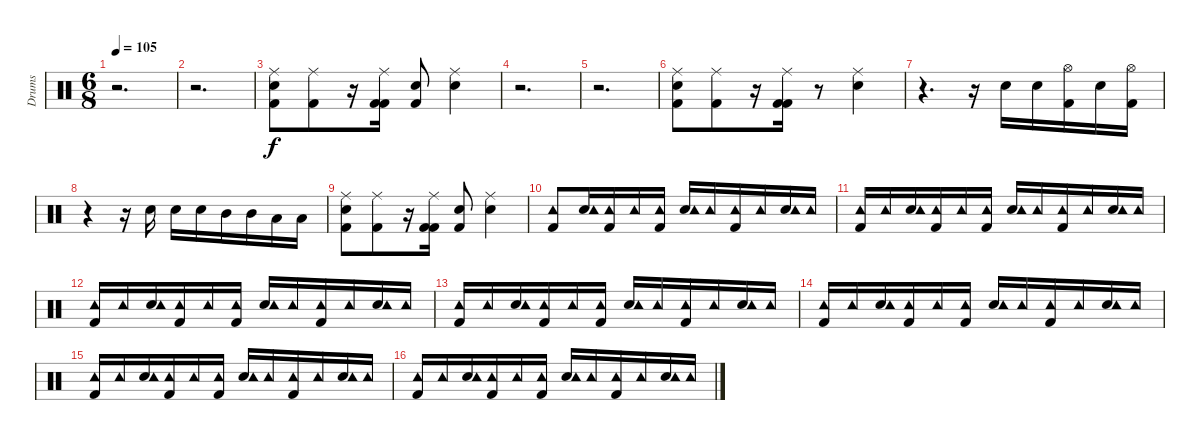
\track ("Drums" "Drums") {instrument percussion}
\staff {score}
\articulation defaults
\ts (6 8)
\tempo 105
\clef neutral
\ks c
r.2{d dy f} |
r.2{d} |
("Kick (hit) 2" "Snare (hit) 2" "Ride (middle)").8 ("Kick (hit) 2" "Ride (middle)").8 r.16 ("Kick (hit) 2" "Kick (hit) 2" "Ride (middle)").16 ("Kick (hit) 2" "Snare (hit) 2").8 ("Ride (middle)" "Snare (hit) 2").4 |
r.2{d} |
r.2{d} |
("Kick (hit) 2" "Snare (hit) 2" "Ride (middle)").8 ("Kick (hit) 2" "Ride (middle)").8 r.16 ("Kick (hit) 2" "Kick (hit) 2" "Ride (middle)").16 r.8 ("Ride (middle)" "Snare (hit) 2").4 |
r.4{d} r.16 "Snare (hit) 2".16 "Snare (hit) 2".16 ("Kick (hit) 2" "Hi-Hat (open)").16 "Snare (hit) 2".16 ("Kick (hit) 2" "Hi-Hat (open)").16 |
r.4 r.16 "Snare (hit) 2".16 "Snare (hit) 2".16 "Snare (hit) 2".16 "Mid Tom (hit)".16 "Mid Tom (hit)".16 "Low Tom (hit)".16 "Low Tom (hit)".16 |
("Kick (hit) 2" "Snare (hit) 2" "Ride (middle)").8 ("Kick (hit) 2" "Ride (middle)").8 r.16 ("Kick (hit) 2" "Kick (hit) 2" "Ride (middle)").16 ("Kick (hit) 2" "Snare (hit) 2").8 ("Ride (middle)" "Snare (hit) 2").4 |
("Kick (hit) 2" "Tambourine (hit)").8 ("Snare (hit) 2" "Tambourine (hit)").16 ("Kick (hit) 2" "Tambourine (hit)").16 "Tambourine (hit)".16 ("Kick (hit) 2" "Tambourine (hit)").16 ("Snare (hit) 2" "Tambourine (hit)").16 "Tambourine (hit)".16 ("Kick (hit) 2" "Tambourine (hit)").16 "Tambourine (hit)".16 ("Snare (hit) 2" "Tambourine (hit)").16 "Tambourine (hit)".16 |
("Kick (hit) 2" "Tambourine (hit)").16 "Tambourine (hit)".16 ("Snare (hit) 2" "Tambourine (hit)").16 ("Kick (hit) 2" "Tambourine (hit)").16 "Tambourine (hit)".16 ("Kick (hit) 2" "Tambourine (hit)").16 ("Snare (hit) 2" "Tambourine (hit)").16 "Tambourine (hit)".16 ("Kick (hit) 2" "Tambourine (hit)").16 "Tambourine (hit)".16 ("Snare (hit) 2" "Tambourine (hit)").16 "Tambourine (hit)".16 |
("Kick (hit) 2" "Tambourine (hit)").16 "Tambourine (hit)".16 ("Snare (hit) 2" "Tambourine (hit)").16 ("Kick (hit) 2" "Tambourine (hit)").16 "Tambourine (hit)".16 ("Kick (hit) 2" "Tambourine (hit)").16 ("Snare (hit) 2" "Tambourine (hit)").16 "Tambourine (hit)".16 ("Kick (hit) 2" "Tambourine (hit)").16 "Tambourine (hit)".16 ("Snare (hit) 2" "Tambourine (hit)").16 "Tambourine (hit)".16 |
("Kick (hit) 2" "Tambourine (hit)").16 "Tambourine (hit)".16 ("Snare (hit) 2" "Tambourine (hit)").16 ("Kick (hit) 2" "Tambourine (hit)").16 "Tambourine (hit)".16 ("Kick (hit) 2" "Tambourine (hit)").16 ("Snare (hit) 2" "Tambourine (hit)").16 "Tambourine (hit)".16 ("Kick (hit) 2" "Tambourine (hit)").16 "Tambourine (hit)".16 ("Snare (hit) 2" "Tambourine (hit)").16 "Tambourine (hit)".16 |
("Kick (hit) 2" "Tambourine (hit)").16 "Tambourine (hit)".16 ("Snare (hit) 2" "Tambourine (hit)").16 ("Kick (hit) 2" "Tambourine (hit)").16 "Tambourine (hit)".16 ("Kick (hit) 2" "Tambourine (hit)").16 ("Snare (hit) 2" "Tambourine (hit)").16 "Tambourine (hit)".16 ("Kick (hit) 2" "Tambourine (hit)").16 "Tambourine (hit)".16 ("Snare (hit) 2" "Tambourine (hit)").16 "Tambourine (hit)".16 |
("Kick (hit) 2" "Tambourine (hit)").16 "Tambourine (hit)".16 ("Snare (hit) 2" "Tambourine (hit)").16 ("Kick (hit) 2" "Tambourine (hit)").16 "Tambourine (hit)".16 ("Kick (hit) 2" "Tambourine (hit)").16 ("Snare (hit) 2" "Tambourine (hit)").16 "Tambourine (hit)".16 ("Kick (hit) 2" "Tambourine (hit)").16 "Tambourine (hit)".16 ("Snare (hit) 2" "Tambourine (hit)").16 "Tambourine (hit)".16 |
("Kick (hit) 2" "Tambourine (hit)").16 "Tambourine (hit)".16 ("Snare (hit) 2" "Tambourine (hit)").16 ("Kick (hit) 2" "Tambourine (hit)").16 "Tambourine (hit)".16 ("Kick (hit) 2" "Tambourine (hit)").16 ("Snare (hit) 2" "Tambourine (hit)").16 "Tambourine (hit)".16 ("Kick (hit) 2" "Tambourine (hit)").16 "Tambourine (hit)".16 ("Snare (hit) 2" "Tambourine (hit)").16 "Tambourine (hit)".16
